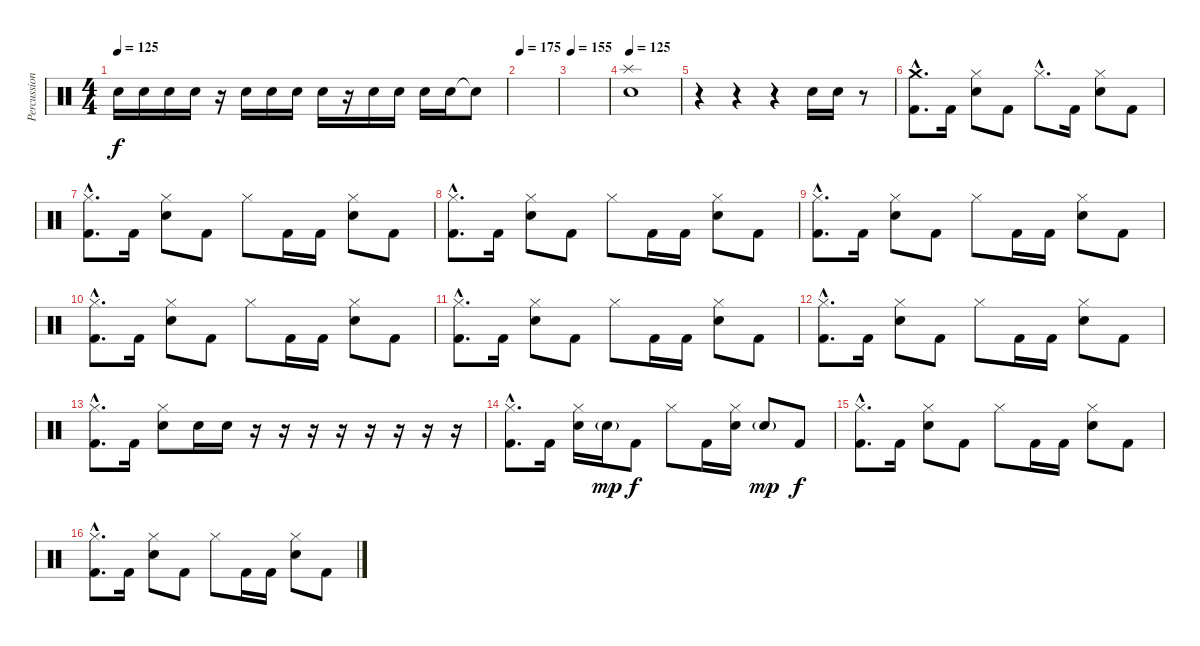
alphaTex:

\track ("Percussion" "Percussion") {instrument percussion}
\staff {score}
\articulation defaults
\ts (4 4)
\tempo 125
\clef neutral
\ks c "Electric Snare (hit)".16{dy f} "Electric Snare (hit)".16 "Electric Snare (hit)".16 "Electric Snare (hit)".16
r.16 "Electric Snare (hit)".16 "Electric Snare (hit)".16 "Electric Snare (hit)".16 "Electric Snare (hit)".16 r.16 "Electric Snare (hit)".16 "Electric Snare (hit)".16 "Electric Snare (hit)".16 "Electric Snare (hit)".16 "Snare (hit)"{t}.8 |
\tempo 175
|
\tempo 155
|
\tempo 125
("Splash (hit)" "Electric Snare (hit)").1 |
r.4 r.4 r.4 "Electric Snare (hit)".16 "Electric Snare (hit)".16 r.8 |
("Crash medium (hit)"{hac} "Kick (hit) 2"{hac}).8{d} "Kick (hit) 2".16 ("Hi-Hat (closed)" "Electric Snare (hit)").8 "Kick (hit) 2".8 "Hi-Hat (closed)"{hac}.8{d} "Kick (hit) 2".16 ("Hi-Hat (closed)" "Electric Snare (hit)").8 "Kick (hit) 2".8 |
("Hi-Hat (closed)"{hac} "Kick (hit) 2"{hac}).8{d} "Kick (hit) 2".16 ("Hi-Hat (closed)" "Electric Snare (hit)").8 "Kick (hit) 2".8 "Hi-Hat (closed)".8 "Kick (hit) 2".16 "Kick (hit) 2".16 ("Hi-Hat (closed)" "Electric Snare (hit)").8 "Kick (hit) 2".8 |
("Hi-Hat (closed)"{hac} "Kick (hit) 2"{hac}).8{d} "Kick (hit) 2".16 ("Hi-Hat (closed)" "Electric Snare (hit)").8 "Kick (hit) 2".8 "Hi-Hat (closed)".8 "Kick (hit) 2".16 "Kick (hit) 2".16 ("Hi-Hat (closed)" "Electric Snare (hit)").8 "Kick (hit) 2".8 |
("Hi-Hat (closed)"{hac} "Kick (hit) 2"{hac}).8{d} "Kick (hit) 2".16 ("Hi-Hat (closed)" "Electric Snare (hit)").8 "Kick (hit) 2".8 "Hi-Hat (closed)".8 "Kick (hit) 2".16 "Kick (hit) 2".16 ("Hi-Hat (closed)" "Electric Snare (hit)").8 "Kick (hit) 2".8 |
("Hi-Hat (closed)"{hac} "Kick (hit) 2"{hac}).8{d} "Kick (hit) 2".16 ("Hi-Hat (closed)" "Electric Snare (hit)").8 "Kick (hit) 2".8 "Hi-Hat (closed)".8 "Kick (hit) 2".16 "Kick (hit) 2".16 ("Hi-Hat (closed)" "Electric Snare (hit)").8 "Kick (hit) 2".8 |
("Hi-Hat (closed)"{hac} "Kick (hit) 2"{hac}).8{d} "Kick (hit) 2".16 ("Hi-Hat (closed)" "Electric Snare (hit)").8 "Kick (hit) 2".8 "Hi-Hat (closed)".8 "Kick (hit) 2".16 "Kick (hit) 2".16 ("Hi-Hat (closed)" "Electric Snare (hit)").8 "Kick (hit) 2".8 |
("Hi-Hat (closed)"{hac} "Kick (hit) 2"{hac}).8{d} "Kick (hit) 2".16 ("Hi-Hat (closed)" "Electric Snare (hit)").8 "Kick (hit) 2".8 "Hi-Hat (closed)".8 "Kick (hit) 2".16 "Kick (hit) 2".16 ("Hi-Hat (closed)" "Electric Snare (hit)").8 "Kick (hit) 2".8 |
("Hi-Hat (closed)"{hac} "Kick (hit) 2"{hac}).8{d} "Kick (hit) 2".16 ("Hi-Hat (closed)" "Electric Snare (hit)").8 "Electric Snare (hit)".16 "Electric Snare (hit)".16 r.16 r.16 r.16 r.16 r.16 r.16 r.16 r.16 |
("Hi-Hat (closed)"{hac} "Kick (hit) 2"{hac}).8{d} "Kick (hit) 2".16 ("Hi-Hat (closed)" "Electric Snare (hit)").16 "Electric Snare (hit)"{g}.16{dy mp} "Kick (hit) 2".8{dy f} "Hi-Hat (closed)".8 "Kick (hit) 2".16 ("Hi-Hat (closed)" "Electric Snare (hit)").16 "Electric Snare (hit)"{g}.8{dy mp} "Kick (hit) 2".8{dy f} |
("Hi-Hat (closed)"{hac} "Kick (hit) 2"{hac}).8{d} "Kick (hit) 2".16 ("Hi-Hat (closed)" "Electric Snare (hit)").8 "Kick (hit) 2".8 "Hi-Hat (closed)".8 "Kick (hit) 2".16 "Kick (hit) 2".16 ("Hi-Hat (closed)" "Electric Snare (hit)").8 "Kick (hit) 2".8 |
("Hi-Hat (closed)"{hac} "Kick (hit) 2"{hac}).8{d} "Kick (hit) 2".16 ("Hi-Hat (closed)" "Electric Snare (hit)").8 "Kick (hit) 2".8 "Hi-Hat (closed)".8 "Kick (hit) 2".16 "Kick (hit) 2".16 ("Hi-Hat (closed)" "Electric Snare (hit)").8 "Kick (hit) 2".8
